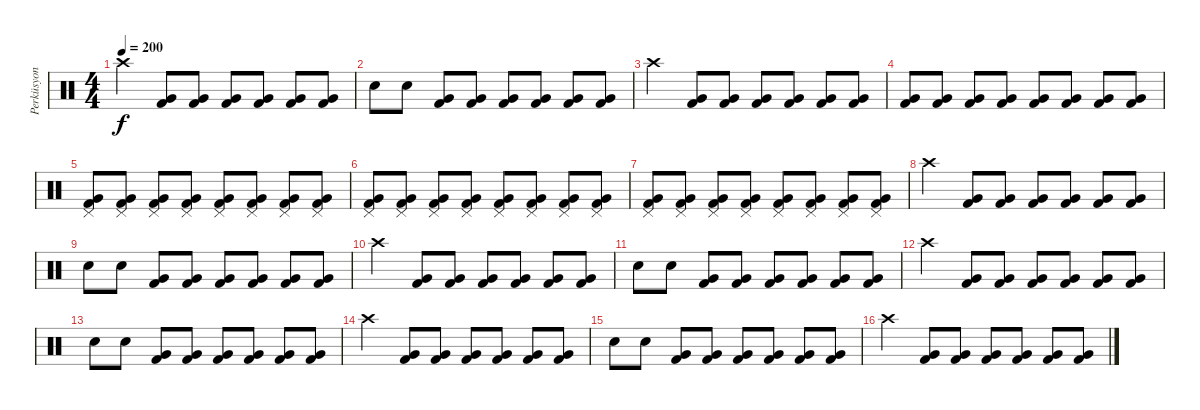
\track ("Perküsyon" "Perküsyon") {instrument percussion}
\staff {score}
\articulation defaults
\ts (4 4)
\tempo 200
\clef neutral
\ks c "Crash high (hit)".4{dy f}
("Very Low Tom (hit)" "Kick (hit) 2").8 ("Very Low Tom (hit)" "Kick (hit) 2").8 ("Very Low Tom (hit)" "Kick (hit) 2").8 ("Very Low Tom (hit)" "Kick (hit) 2").8 ("Very Low Tom (hit)" "Kick (hit) 2").8 ("Very Low Tom (hit)" "Kick (hit) 2").8 |
"Snare (hit) 2".8 "Electric Snare (hit)".8 ("Very Low Tom (hit)" "Kick (hit) 2").8 ("Very Low Tom (hit)" "Kick (hit) 2").8 ("Very Low Tom (hit)" "Kick (hit) 2").8 ("Very Low Tom (hit)" "Kick (hit) 2").8 ("Very Low Tom (hit)" "Kick (hit) 2").8 ("Very Low Tom (hit)" "Kick (hit) 2").8 |
"Crash high (hit)".4 ("Very Low Tom (hit)" "Kick (hit) 2").8 ("Very Low Tom (hit)" "Kick (hit) 2").8 ("Very Low Tom (hit)" "Kick (hit) 2").8 ("Very Low Tom (hit)" "Kick (hit) 2").8 ("Very Low Tom (hit)" "Kick (hit) 2").8 ("Very Low Tom (hit)" "Kick (hit) 2").8 |
("Very Low Tom (hit)" "Kick (hit) 2").8 ("Very Low Tom (hit)" "Kick (hit) 2").8 ("Very Low Tom (hit)" "Kick (hit) 2").8 ("Very Low Tom (hit)" "Kick (hit) 2").8 ("Very Low Tom (hit)" "Kick (hit) 2").8 ("Very Low Tom (hit)" "Kick (hit) 2").8 ("Very Low Tom (hit)" "Kick (hit) 2").8 ("Very Low Tom (hit)" "Kick (hit) 2").8 |
("Pedal Hi-Hat (hit)" "Very Low Tom (hit)" "Kick (hit) 2").8 ("Pedal Hi-Hat (hit)" "Very Low Tom (hit)" "Kick (hit) 2").8 ("Pedal Hi-Hat (hit)" "Very Low Tom (hit)" "Kick (hit) 2").8 ("Pedal Hi-Hat (hit)" "Very Low Tom (hit)" "Kick (hit) 2").8 ("Pedal Hi-Hat (hit)" "Very Low Tom (hit)" "Kick (hit) 2").8 ("Pedal Hi-Hat (hit)" "Very Low Tom (hit)" "Kick (hit) 2").8 ("Pedal Hi-Hat (hit)" "Very Low Tom (hit)" "Kick (hit) 2").8 ("Pedal Hi-Hat (hit)" "Very Low Tom (hit)" "Kick (hit) 2").8 |
("Pedal Hi-Hat (hit)" "Very Low Tom (hit)" "Kick (hit) 2").8 ("Pedal Hi-Hat (hit)" "Very Low Tom (hit)" "Kick (hit) 2").8 ("Pedal Hi-Hat (hit)" "Very Low Tom (hit)" "Kick (hit) 2").8 ("Pedal Hi-Hat (hit)" "Very Low Tom (hit)" "Kick (hit) 2").8 ("Pedal Hi-Hat (hit)" "Very Low Tom (hit)" "Kick (hit) 2").8 ("Pedal Hi-Hat (hit)" "Very Low Tom (hit)" "Kick (hit) 2").8 ("Pedal Hi-Hat (hit)" "Very Low Tom (hit)" "Kick (hit) 2").8 ("Pedal Hi-Hat (hit)" "Very Low Tom (hit)" "Kick (hit) 2").8 |
("Pedal Hi-Hat (hit)" "Very Low Tom (hit)" "Kick (hit) 2").8 ("Pedal Hi-Hat (hit)" "Very Low Tom (hit)" "Kick (hit) 2").8 ("Pedal Hi-Hat (hit)" "Very Low Tom (hit)" "Kick (hit) 2").8 ("Pedal Hi-Hat (hit)" "Very Low Tom (hit)" "Kick (hit) 2").8 ("Pedal Hi-Hat (hit)" "Very Low Tom (hit)" "Kick (hit) 2").8 ("Pedal Hi-Hat (hit)" "Very Low Tom (hit)" "Kick (hit) 2").8 ("Pedal Hi-Hat (hit)" "Very Low Tom (hit)" "Kick (hit) 2").8 ("Pedal Hi-Hat (hit)" "Very Low Tom (hit)" "Kick (hit) 2").8 |
"Crash high (hit)".4 ("Very Low Tom (hit)" "Kick (hit) 2").8 ("Very Low Tom (hit)" "Kick (hit) 2").8 ("Very Low Tom (hit)" "Kick (hit) 2").8 ("Very Low Tom (hit)" "Kick (hit) 2").8 ("Very Low Tom (hit)" "Kick (hit) 2").8 ("Very Low Tom (hit)" "Kick (hit) 2").8 |
"Snare (hit) 2".8 "Electric Snare (hit)".8 ("Very Low Tom (hit)" "Kick (hit) 2").8 ("Very Low Tom (hit)" "Kick (hit) 2").8 ("Very Low Tom (hit)" "Kick (hit) 2").8 ("Very Low Tom (hit)" "Kick (hit) 2").8 ("Very Low Tom (hit)" "Kick (hit) 2").8 ("Very Low Tom (hit)" "Kick (hit) 2").8 |
"Crash high (hit)".4 ("Very Low Tom (hit)" "Kick (hit) 2").8 ("Very Low Tom (hit)" "Kick (hit) 2").8 ("Very Low Tom (hit)" "Kick (hit) 2").8 ("Very Low Tom (hit)" "Kick (hit) 2").8 ("Very Low Tom (hit)" "Kick (hit) 2").8 ("Very Low Tom (hit)" "Kick (hit) 2").8 |
"Snare (hit) 2".8 "Electric Snare (hit)".8 ("Very Low Tom (hit)" "Kick (hit) 2").8 ("Very Low Tom (hit)" "Kick (hit) 2").8 ("Very Low Tom (hit)" "Kick (hit) 2").8 ("Very Low Tom (hit)" "Kick (hit) 2").8 ("Very Low Tom (hit)" "Kick (hit) 2").8 ("Very Low Tom (hit)" "Kick (hit) 2").8 |
"Crash high (hit)".4 ("Very Low Tom (hit)" "Kick (hit) 2").8 ("Very Low Tom (hit)" "Kick (hit) 2").8 ("Very Low Tom (hit)" "Kick (hit) 2").8 ("Very Low Tom (hit)" "Kick (hit) 2").8 ("Very Low Tom (hit)" "Kick (hit) 2").8 ("Very Low Tom (hit)" "Kick (hit) 2").8 |
"Snare (hit) 2".8 "Electric Snare (hit)".8 ("Very Low Tom (hit)" "Kick (hit) 2").8 ("Very Low Tom (hit)" "Kick (hit) 2").8 ("Very Low Tom (hit)" "Kick (hit) 2").8 ("Very Low Tom (hit)" "Kick (hit) 2").8 ("Very Low Tom (hit)" "Kick (hit) 2").8 ("Very Low Tom (hit)" "Kick (hit) 2").8 |
"Crash high (hit)".4 ("Very Low Tom (hit)" "Kick (hit) 2").8 ("Very Low Tom (hit)" "Kick (hit) 2").8 ("Very Low Tom (hit)" "Kick (hit) 2").8 ("Very Low Tom (hit)" "Kick (hit) 2").8 ("Very Low Tom (hit)" "Kick (hit) 2").8 ("Very Low Tom (hit)" "Kick (hit) 2").8 |
"Snare (hit) 2".8 "Electric Snare (hit)".8 ("Very Low Tom (hit)" "Kick (hit) 2").8 ("Very Low Tom (hit)" "Kick (hit) 2").8 ("Very Low Tom (hit)" "Kick (hit) 2").8 ("Very Low Tom (hit)" "Kick (hit) 2").8 ("Very Low Tom (hit)" "Kick (hit) 2").8 ("Very Low Tom (hit)" "Kick (hit) 2").8 |
"Crash high (hit)".4 ("Very Low Tom (hit)" "Kick (hit) 2").8 ("Very Low Tom (hit)" "Kick (hit) 2").8 ("Very Low Tom (hit)" "Kick (hit) 2").8 ("Very Low Tom (hit)" "Kick (hit) 2").8 ("Very Low Tom (hit)" "Kick (hit) 2").8 ("Very Low Tom (hit)" "Kick (hit) 2").8
